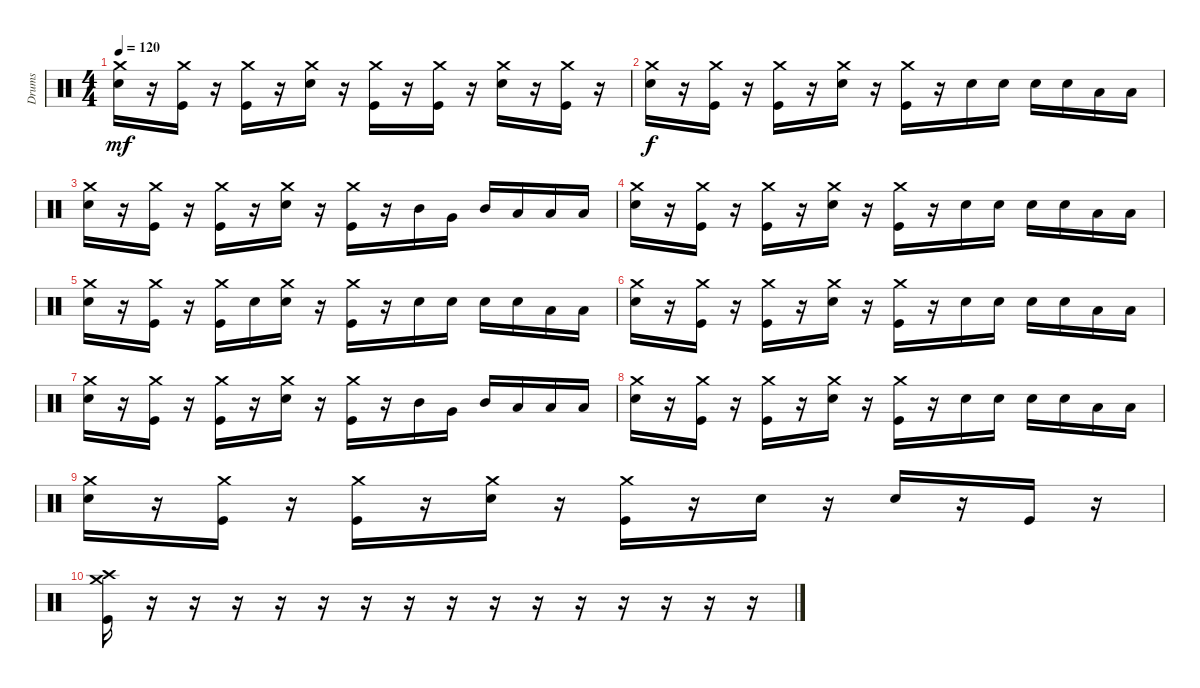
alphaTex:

\track ("Drums" "Drums") {instrument percussion}
\staff {score}
\articulation defaults
\ts (4 4)
\tempo 120
\clef neutral
\ks c
("Electric Snare (hit)" "Crash medium (hit)").16{dy mf} r.16 ("Kick (hit)" "Crash medium (hit)").16 r.16 ("Kick (hit)" "Crash medium (hit)").16 r.16 ("Electric Snare (hit)" "Crash medium (hit)").16 r.16 ("Kick (hit)" "Crash medium (hit)").16 r.16 ("Kick (hit)" "Crash medium (hit)").16 r.16 ("Electric Snare (hit)" "Crash medium (hit)").16 r.16 ("Kick (hit)" "Crash medium (hit)").16 r.16 |
("Electric Snare (hit)" "Crash medium (hit)").16{dy f} r.16 ("Kick (hit)" "Crash medium (hit)").16 r.16 ("Kick (hit)" "Crash medium (hit)").16 r.16 ("Electric Snare (hit)" "Crash medium (hit)").16 r.16 ("Kick (hit)" "Crash medium (hit)").16 r.16 "Electric Snare (hit)".16 "Electric Snare (hit)".16 "Electric Snare (hit)".16 "Electric Snare (hit)".16 "Low Tom (hit)".16 "Low Floor Tom (hit)".16 |
("Electric Snare (hit)" "Crash medium (hit)").16 r.16 ("Kick (hit)" "Crash medium (hit)").16 r.16 ("Kick (hit)" "Crash medium (hit)").16 r.16 ("Electric Snare (hit)" "Crash medium (hit)").16 r.16 ("Kick (hit)" "Crash medium (hit)").16 r.16 "Mid Tom (hit)".16 "Very Low Tom (hit)".16 "Mid Tom (hit)".16 "Low Tom (hit)".16 "Low Tom (hit)".16 "Low Floor Tom (hit)".16 |
("Electric Snare (hit)" "Crash medium (hit)").16 r.16 ("Kick (hit)" "Crash medium (hit)").16 r.16 ("Kick (hit)" "Crash medium (hit)").16 r.16 ("Electric Snare (hit)" "Crash medium (hit)").16 r.16 ("Kick (hit)" "Crash medium (hit)").16 r.16 "Electric Snare (hit)".16 "Electric Snare (hit)".16 "Electric Snare (hit)".16 "Electric Snare (hit)".16 "Low Tom (hit)".16 "Low Floor Tom (hit)".16 |
("Electric Snare (hit)" "Crash medium (hit)").16 r.16 ("Kick (hit)" "Crash medium (hit)").16 r.16 ("Kick (hit)" "Crash medium (hit)").16 "Electric Snare (hit)".16 ("Electric Snare (hit)" "Crash medium (hit)").16 r.16 ("Kick (hit)" "Crash medium (hit)").16 r.16 "Electric Snare (hit)".16 "Electric Snare (hit)".16 "Electric Snare (hit)".16 "Electric Snare (hit)".16 "Low Tom (hit)".16 "Low Floor Tom (hit)".16 |
("Electric Snare (hit)" "Crash medium (hit)").16 r.16 ("Kick (hit)" "Crash medium (hit)").16 r.16 ("Kick (hit)" "Crash medium (hit)").16 r.16 ("Electric Snare (hit)" "Crash medium (hit)").16 r.16 ("Kick (hit)" "Crash medium (hit)").16 r.16 "Electric Snare (hit)".16 "Electric Snare (hit)".16 "Electric Snare (hit)".16 "Electric Snare (hit)".16 "Low Tom (hit)".16 "Low Floor Tom (hit)".16 |
("Electric Snare (hit)" "Crash medium (hit)").16 r.16 ("Kick (hit)" "Crash medium (hit)").16 r.16 ("Kick (hit)" "Crash medium (hit)").16 r.16 ("Electric Snare (hit)" "Crash medium (hit)").16 r.16 ("Kick (hit)" "Crash medium (hit)").16 r.16 "Mid Tom (hit)".16 "Very Low Tom (hit)".16 "Mid Tom (hit)".16 "Low Tom (hit)".16 "Low Tom (hit)".16 "Low Floor Tom (hit)".16 |
("Electric Snare (hit)" "Crash medium (hit)").16 r.16 ("Kick (hit)" "Crash medium (hit)").16 r.16 ("Kick (hit)" "Crash medium (hit)").16 r.16 ("Electric Snare (hit)" "Crash medium (hit)").16 r.16 ("Kick (hit)" "Crash medium (hit)").16 r.16 "Electric Snare (hit)".16 "Electric Snare (hit)".16 "Electric Snare (hit)".16 "Electric Snare (hit)".16 "Low Tom (hit)".16 "Low Floor Tom (hit)".16 |
("Electric Snare (hit)" "Crash medium (hit)").16 r.16 ("Kick (hit)" "Crash medium (hit)").16 r.16 ("Kick (hit)" "Crash medium (hit)").16 r.16 ("Electric Snare (hit)" "Crash medium (hit)").16 r.16 ("Kick (hit)" "Crash medium (hit)").16 r.16 "Electric Snare (hit)".16 r.16 "Electric Snare (hit)".16 r.16 "Kick (hit)".16 r.16 |
("Kick (hit)" "Crash high (hit)" "Crash medium (hit)").16 r.16 r.16 r.16 r.16 r.16 r.16 r.16 r.16 r.16 r.16 r.16 r.16 r.16 r.16 r.16
